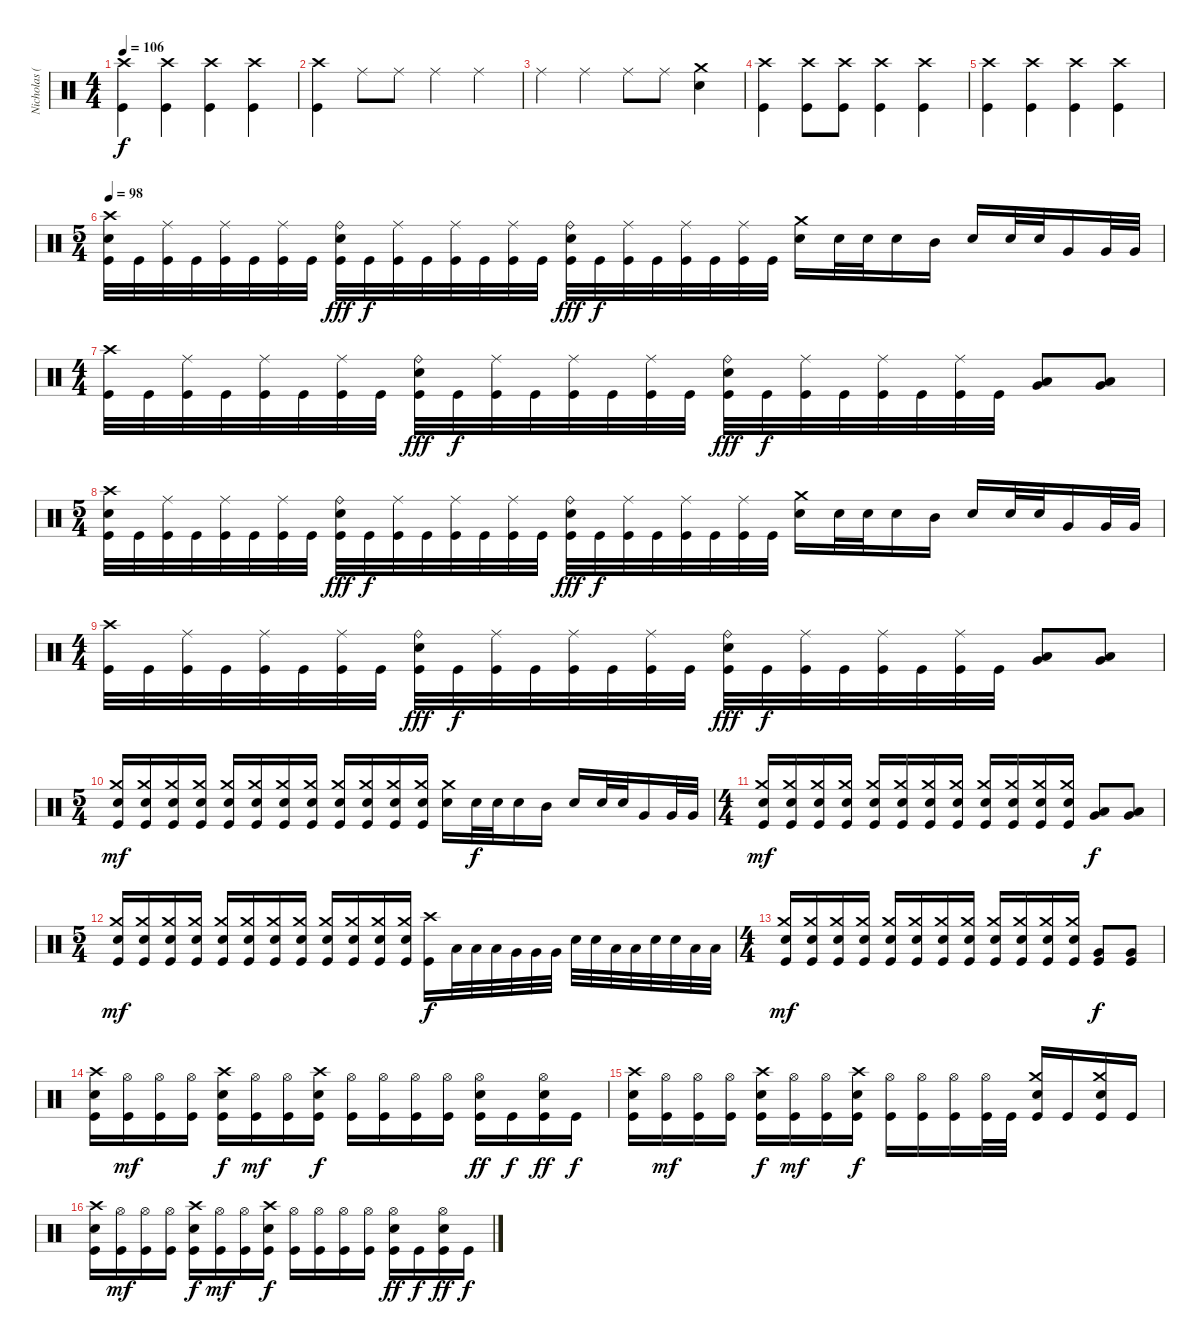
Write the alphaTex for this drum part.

\track ("Nicholas (Drums)" "Nicholas (") {instrument percussion}
\staff {score}
\articulation defaults
\ts (4 4)
\tempo 106
\clef neutral
\ks c
("Crash high (hit)" "Kick (hit)").4{dy f} ("Crash high (hit)" "Kick (hit)").4 ("Crash high (hit)" "Kick (hit)").4 ("Crash high (hit)" "Kick (hit)").4 |
("Crash high (hit)" "Kick (hit)").4 "Ride (middle)".8 "Ride (middle)".8 "Ride (middle)".4 "Ride (middle)".4 |
"Ride (middle)".4 "Ride (middle)".4 "Ride (middle)".8 "Ride (middle)".8 ("Crash medium (hit)" "Electric Snare (hit)").4 |
("Crash high (hit)" "Kick (hit)").4 ("Crash high (hit)" "Kick (hit)").8 ("Crash high (hit)" "Kick (hit)").8 ("Crash high (hit)" "Kick (hit)").4 ("Crash high (hit)" "Kick (hit)").4 |
("Crash high (hit)" "Kick (hit)").4 ("Crash high (hit)" "Kick (hit)").4 ("Crash high (hit)" "Kick (hit)").4 ("Crash high (hit)" "Kick (hit)").4 |
\ts (5 4)
\tempo 98
("Crash high (hit)" "Electric Snare (hit)" "Kick (hit)").32 "Kick (hit)".32 ("Ride (middle)" "Kick (hit)").32 "Kick (hit)".32 ("Ride (middle)" "Kick (hit)").32 "Kick (hit)".32 ("Ride (middle)" "Kick (hit)").32 "Kick (hit)".32 ("Ride (bell)" "Electric Snare (hit)" "Kick (hit)").32{dy fff} "Kick (hit)".32{dy f} ("Ride (middle)" "Kick (hit)").32 "Kick (hit)".32 ("Ride (middle)" "Kick (hit)").32 "Kick (hit)".32 ("Ride (middle)" "Kick (hit)").32 "Kick (hit)".32 ("Ride (bell)" "Electric Snare (hit)" "Kick (hit)").32{dy fff} "Kick (hit)".32{dy f} ("Ride (middle)" "Kick (hit)").32 "Kick (hit)".32 ("Ride (middle)" "Kick (hit)").32 "Kick (hit)".32 ("Ride (middle)" "Kick (hit)").32 "Kick (hit)".32 ("Crash medium (hit)" "Electric Snare (hit)").16 "Electric Snare (hit)".32 "Electric Snare (hit)".32 "Electric Snare (hit)".16 "Mid Tom (hit)".16 "Electric Snare (hit)".16 "Electric Snare (hit)".32 "Electric Snare (hit)".32 "Very Low Tom (hit)".16 "Very Low Tom (hit)".32 "Very Low Tom (hit)".32 |
\ts (4 4)
("Crash high (hit)" "Kick (hit)").32 "Kick (hit)".32 ("Ride (middle)" "Kick (hit)").32 "Kick (hit)".32 ("Ride (middle)" "Kick (hit)").32 "Kick (hit)".32 ("Ride (middle)" "Kick (hit)").32 "Kick (hit)".32 ("Ride (bell)" "Electric Snare (hit)" "Kick (hit)").32{dy fff} "Kick (hit)".32{dy f} ("Ride (middle)" "Kick (hit)").32 "Kick (hit)".32 ("Ride (middle)" "Kick (hit)").32 "Kick (hit)".32 ("Ride (middle)" "Kick (hit)").32 "Kick (hit)".32 ("Ride (bell)" "Electric Snare (hit)" "Kick (hit)").32{dy fff} "Kick (hit)".32{dy f} ("Ride (middle)" "Kick (hit)").32 "Kick (hit)".32 ("Ride (middle)" "Kick (hit)").32 "Kick (hit)".32 ("Ride (middle)" "Kick (hit)").32 "Kick (hit)".32 ("Low Tom (hit)" "Very Low Tom (hit)").8{bu 60} ("Low Tom (hit)" "Very Low Tom (hit)").8{bu 60} |
\ts (5 4)
("Crash high (hit)" "Electric Snare (hit)" "Kick (hit)").32 "Kick (hit)".32 ("Ride (middle)" "Kick (hit)").32 "Kick (hit)".32 ("Ride (middle)" "Kick (hit)").32 "Kick (hit)".32 ("Ride (middle)" "Kick (hit)").32 "Kick (hit)".32 ("Ride (bell)" "Electric Snare (hit)" "Kick (hit)").32{dy fff} "Kick (hit)".32{dy f} ("Ride (middle)" "Kick (hit)").32 "Kick (hit)".32 ("Ride (middle)" "Kick (hit)").32 "Kick (hit)".32 ("Ride (middle)" "Kick (hit)").32 "Kick (hit)".32 ("Ride (bell)" "Electric Snare (hit)" "Kick (hit)").32{dy fff} "Kick (hit)".32{dy f} ("Ride (middle)" "Kick (hit)").32 "Kick (hit)".32 ("Ride (middle)" "Kick (hit)").32 "Kick (hit)".32 ("Ride (middle)" "Kick (hit)").32 "Kick (hit)".32 ("Crash medium (hit)" "Electric Snare (hit)").16 "Electric Snare (hit)".32 "Electric Snare (hit)".32 "Electric Snare (hit)".16 "Mid Tom (hit)".16 "Electric Snare (hit)".16 "Electric Snare (hit)".32 "Electric Snare (hit)".32 "Very Low Tom (hit)".16 "Very Low Tom (hit)".32 "Very Low Tom (hit)".32 |
\ts (4 4)
("Crash high (hit)" "Kick (hit)").32 "Kick (hit)".32 ("Ride (middle)" "Kick (hit)").32 "Kick (hit)".32 ("Ride (middle)" "Kick (hit)").32 "Kick (hit)".32 ("Ride (middle)" "Kick (hit)").32 "Kick (hit)".32 ("Ride (bell)" "Electric Snare (hit)" "Kick (hit)").32{dy fff} "Kick (hit)".32{dy f} ("Ride (middle)" "Kick (hit)").32 "Kick (hit)".32 ("Ride (middle)" "Kick (hit)").32 "Kick (hit)".32 ("Ride (middle)" "Kick (hit)").32 "Kick (hit)".32 ("Ride (bell)" "Electric Snare (hit)" "Kick (hit)").32{dy fff} "Kick (hit)".32{dy f} ("Ride (middle)" "Kick (hit)").32 "Kick (hit)".32 ("Ride (middle)" "Kick (hit)").32 "Kick (hit)".32 ("Ride (middle)" "Kick (hit)").32 "Kick (hit)".32 ("Low Tom (hit)" "Very Low Tom (hit)").8{bu 60} ("Low Tom (hit)" "Very Low Tom (hit)").8{bu 60} |
\ts (5 4)
("Crash medium (hit)" "Electric Snare (hit)" "Kick (hit)").16{dy mf} ("Crash medium (hit)" "Electric Snare (hit)" "Kick (hit)").16 ("Crash medium (hit)" "Electric Snare (hit)" "Kick (hit)").16 ("Crash medium (hit)" "Electric Snare (hit)" "Kick (hit)").16 ("Crash medium (hit)" "Electric Snare (hit)" "Kick (hit)").16 ("Crash medium (hit)" "Electric Snare (hit)" "Kick (hit)").16 ("Crash medium (hit)" "Electric Snare (hit)" "Kick (hit)").16 ("Crash medium (hit)" "Electric Snare (hit)" "Kick (hit)").16 ("Crash medium (hit)" "Electric Snare (hit)" "Kick (hit)").16 ("Crash medium (hit)" "Electric Snare (hit)" "Kick (hit)").16 ("Crash medium (hit)" "Electric Snare (hit)" "Kick (hit)").16 ("Crash medium (hit)" "Electric Snare (hit)" "Kick (hit)").16 ("Crash medium (hit)" "Electric Snare (hit)").16 "Electric Snare (hit)".32{dy f} "Electric Snare (hit)".32 "Electric Snare (hit)".16 "Mid Tom (hit)".16 "Electric Snare (hit)".16 "Electric Snare (hit)".32 "Electric Snare (hit)".32 "Very Low Tom (hit)".16 "Very Low Tom (hit)".32 "Very Low Tom (hit)".32 |
\ts (4 4)
("Crash medium (hit)" "Electric Snare (hit)" "Kick (hit)").16{dy mf} ("Crash medium (hit)" "Electric Snare (hit)" "Kick (hit)").16 ("Crash medium (hit)" "Electric Snare (hit)" "Kick (hit)").16 ("Crash medium (hit)" "Electric Snare (hit)" "Kick (hit)").16 ("Crash medium (hit)" "Electric Snare (hit)" "Kick (hit)").16 ("Crash medium (hit)" "Electric Snare (hit)" "Kick (hit)").16 ("Crash medium (hit)" "Electric Snare (hit)" "Kick (hit)").16 ("Crash medium (hit)" "Electric Snare (hit)" "Kick (hit)").16 ("Crash medium (hit)" "Electric Snare (hit)" "Kick (hit)").16 ("Crash medium (hit)" "Electric Snare (hit)" "Kick (hit)").16 ("Crash medium (hit)" "Electric Snare (hit)" "Kick (hit)").16 ("Crash medium (hit)" "Electric Snare (hit)" "Kick (hit)").16 ("Low Tom (hit)" "Very Low Tom (hit)").8{bu 60 dy f} ("Low Tom (hit)" "Very Low Tom (hit)").8{bu 60} |
\ts (5 4)
("Crash medium (hit)" "Electric Snare (hit)" "Kick (hit)").16{dy mf} ("Crash medium (hit)" "Electric Snare (hit)" "Kick (hit)").16 ("Crash medium (hit)" "Electric Snare (hit)" "Kick (hit)").16 ("Crash medium (hit)" "Electric Snare (hit)" "Kick (hit)").16 ("Crash medium (hit)" "Electric Snare (hit)" "Kick (hit)").16 ("Crash medium (hit)" "Electric Snare (hit)" "Kick (hit)").16 ("Crash medium (hit)" "Electric Snare (hit)" "Kick (hit)").16 ("Crash medium (hit)" "Electric Snare (hit)" "Kick (hit)").16 ("Crash medium (hit)" "Electric Snare (hit)" "Kick (hit)").16 ("Crash medium (hit)" "Electric Snare (hit)" "Kick (hit)").16 ("Crash medium (hit)" "Electric Snare (hit)" "Kick (hit)").16 ("Crash medium (hit)" "Electric Snare (hit)" "Kick (hit)").16 ("Crash high (hit)" "Kick (hit)").16{dy f} "Low Floor Tom (hit)".32 "Low Floor Tom (hit)".32 "Low Floor Tom (hit)".32 "Very Low Tom (hit)".32 "Very Low Tom (hit)".32 "Very Low Tom (hit)".32 "Electric Snare (hit)".32 "Electric Snare (hit)".32 "Low Tom (hit)".32 "Low Tom (hit)".32 "Electric Snare (hit)".32 "Electric Snare (hit)".32 "Low Tom (hit)".32 "Low Tom (hit)".32 |
\ts (4 4)
("Crash medium (hit)" "Electric Snare (hit)" "Kick (hit)").16{dy mf} ("Crash medium (hit)" "Electric Snare (hit)" "Kick (hit)").16 ("Crash medium (hit)" "Electric Snare (hit)" "Kick (hit)").16 ("Crash medium (hit)" "Electric Snare (hit)" "Kick (hit)").16 ("Crash medium (hit)" "Electric Snare (hit)" "Kick (hit)").16 ("Crash medium (hit)" "Electric Snare (hit)" "Kick (hit)").16 ("Crash medium (hit)" "Electric Snare (hit)" "Kick (hit)").16 ("Crash medium (hit)" "Electric Snare (hit)" "Kick (hit)").16 ("Crash medium (hit)" "Electric Snare (hit)" "Kick (hit)").16 ("Crash medium (hit)" "Electric Snare (hit)" "Kick (hit)").16 ("Crash medium (hit)" "Electric Snare (hit)" "Kick (hit)").16 ("Crash medium (hit)" "Electric Snare (hit)" "Kick (hit)").16 ("Very Low Tom (hit)" "Kick (hit)").8{dy f} ("Very Low Tom (hit)" "Kick (hit)").8 |
("Crash high (hit)" "Electric Snare (hit)" "Kick (hit)").16 ("Hi-Hat (open)" "Kick (hit)").16{dy mf} ("Hi-Hat (open)" "Kick (hit)").16 ("Hi-Hat (open)" "Kick (hit)").16 ("Crash high (hit)" "Electric Snare (hit)" "Kick (hit)").16{dy f} ("Hi-Hat (open)" "Kick (hit)").16{dy mf} ("Hi-Hat (open)" "Kick (hit)").16 ("Crash high (hit)" "Electric Snare (hit)" "Kick (hit)").16{dy f} ("Hi-Hat (open)" "Kick (hit)").16 ("Hi-Hat (open)" "Kick (hit)").16 ("Hi-Hat (open)" "Kick (hit)").16 ("Hi-Hat (open)" "Kick (hit)").16 ("Hi-Hat (open)" "Electric Snare (hit)" "Kick (hit)").16{dy ff} "Kick (hit)".16{dy f} ("Hi-Hat (open)" "Electric Snare (hit)" "Kick (hit)").16{dy ff} "Kick (hit)".16{dy f} |
("Crash high (hit)" "Electric Snare (hit)" "Kick (hit)").16 ("Hi-Hat (open)" "Kick (hit)").16{dy mf} ("Hi-Hat (open)" "Kick (hit)").16 ("Hi-Hat (open)" "Kick (hit)").16 ("Crash high (hit)" "Electric Snare (hit)" "Kick (hit)").16{dy f} ("Hi-Hat (open)" "Kick (hit)").16{dy mf} ("Hi-Hat (open)" "Kick (hit)").16 ("Crash high (hit)" "Electric Snare (hit)" "Kick (hit)").16{dy f} ("Hi-Hat (open)" "Kick (hit)").16 ("Hi-Hat (open)" "Kick (hit)").16 ("Hi-Hat (open)" "Kick (hit)").16 ("Hi-Hat (open)" "Kick (hit)").32 "Kick (hit)".32 ("Crash medium (hit)" "Electric Snare (hit)" "Kick (hit)").16 "Kick (hit)".16 ("Crash medium (hit)" "Electric Snare (hit)" "Kick (hit)").16 "Kick (hit)".16 |
("Crash high (hit)" "Electric Snare (hit)" "Kick (hit)").16 ("Hi-Hat (open)" "Kick (hit)").16{dy mf} ("Hi-Hat (open)" "Kick (hit)").16 ("Hi-Hat (open)" "Kick (hit)").16 ("Crash high (hit)" "Electric Snare (hit)" "Kick (hit)").16{dy f} ("Hi-Hat (open)" "Kick (hit)").16{dy mf} ("Hi-Hat (open)" "Kick (hit)").16 ("Crash high (hit)" "Electric Snare (hit)" "Kick (hit)").16{dy f} ("Hi-Hat (open)" "Kick (hit)").16 ("Hi-Hat (open)" "Kick (hit)").16 ("Hi-Hat (open)" "Kick (hit)").16 ("Hi-Hat (open)" "Kick (hit)").16 ("Hi-Hat (open)" "Electric Snare (hit)" "Kick (hit)").16{dy ff} "Kick (hit)".16{dy f} ("Hi-Hat (open)" "Electric Snare (hit)" "Kick (hit)").16{dy ff} "Kick (hit)".16{dy f}
